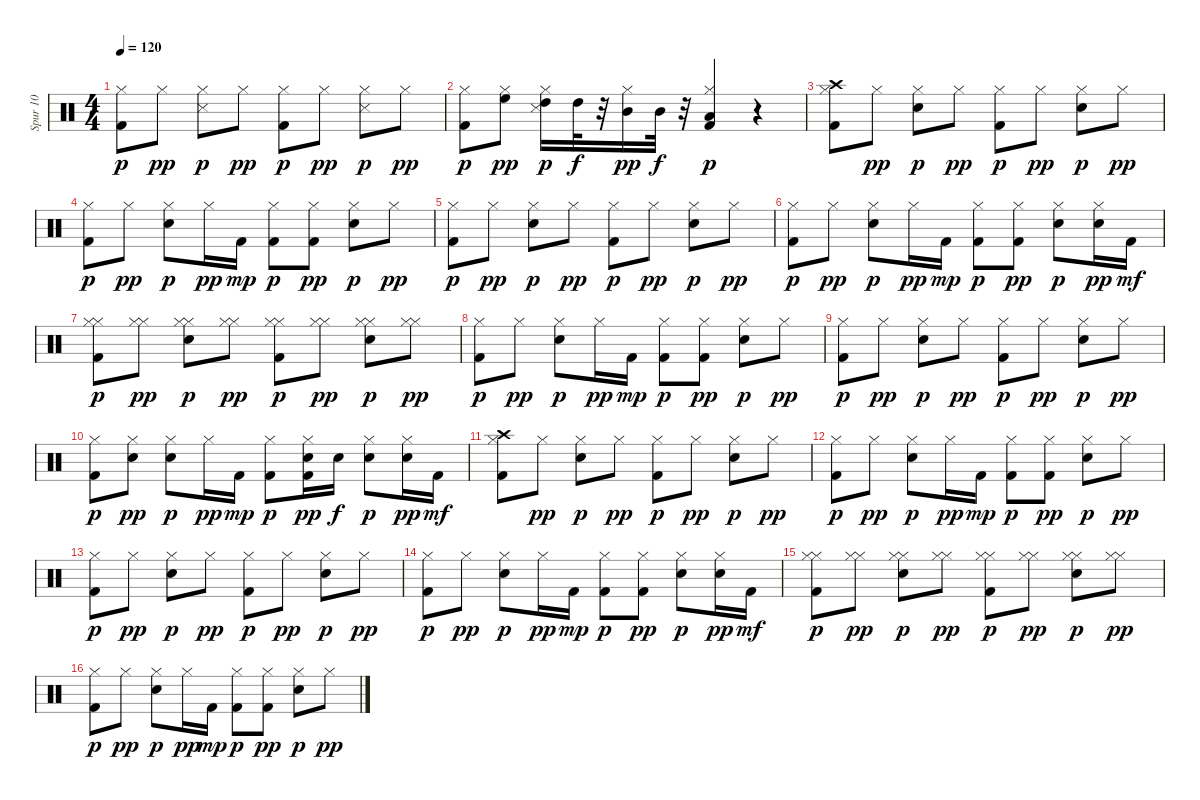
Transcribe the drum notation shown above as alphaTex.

\track ("Spur 10" "Spur 10") {instrument percussion}
\staff {score}
\articulation defaults
\ts (4 4)
\tempo 120
\clef neutral
\ks c
("Kick (hit) 2" "Hi-Hat (closed)").8{dy p} "Hi-Hat (closed)".8{dy pp} ("Snare (side stick) 3" "Hi-Hat (closed)").8{dy p} "Hi-Hat (closed)".8{dy pp} ("Kick (hit) 2" "Hi-Hat (closed)").8{dy p} "Hi-Hat (closed)".8{dy pp} ("Snare (side stick) 3" "Hi-Hat (closed)").8{dy p} "Hi-Hat (closed)".8{dy pp} |
("Kick (hit) 2" "Hi-Hat (closed)").8{dy p} ("Hi-Hat (closed)" "High Floor Tom (hit)").8{dy pp} ("Snare (side stick) 3" "Hi-Hat (closed)" "High Tom (hit)").16{dy p} "High Tom (hit)".32{dy f} r.32 ("Hi-Hat (closed)" "Mid Tom (hit)").16{dy pp} "Mid Tom (hit)".32{dy f} r.32 ("Kick (hit) 2" "Hi-Hat (closed)" "Low Tom (hit)").4{dy p} r.4 |
("Kick (hit) 2" "Hi-Hat (closed)" "Crash high (hit)").8 "Hi-Hat (closed)".8{dy pp} ("Snare (hit) 2" "Hi-Hat (closed)").8{dy p} "Hi-Hat (closed)".8{dy pp} ("Kick (hit) 2" "Hi-Hat (closed)").8{dy p} "Hi-Hat (closed)".8{dy pp} ("Snare (hit) 2" "Hi-Hat (closed)").8{dy p} "Hi-Hat (closed)".8{dy pp} |
("Kick (hit) 2" "Hi-Hat (closed)").8{dy p} "Hi-Hat (closed)".8{dy pp} ("Snare (hit) 2" "Hi-Hat (closed)").8{dy p} "Hi-Hat (closed)".16{dy pp} "Kick (hit) 2".16{dy mp} ("Kick (hit) 2" "Hi-Hat (closed)").8{dy p} ("Kick (hit) 2" "Hi-Hat (closed)").8{dy pp} ("Snare (hit) 2" "Hi-Hat (closed)").8{dy p} "Hi-Hat (closed)".8{dy pp} |
("Kick (hit) 2" "Hi-Hat (closed)").8{dy p} "Hi-Hat (closed)".8{dy pp} ("Snare (hit) 2" "Hi-Hat (closed)").8{dy p} "Hi-Hat (closed)".8{dy pp} ("Kick (hit) 2" "Hi-Hat (closed)").8{dy p} "Hi-Hat (closed)".8{dy pp} ("Snare (hit) 2" "Hi-Hat (closed)").8{dy p} "Hi-Hat (closed)".8{dy pp} |
("Kick (hit) 2" "Hi-Hat (closed)").8{dy p} "Hi-Hat (closed)".8{dy pp} ("Snare (hit) 2" "Hi-Hat (closed)").8{dy p} "Hi-Hat (closed)".16{dy pp} "Kick (hit) 2".16{dy mp} ("Kick (hit) 2" "Hi-Hat (closed)").8{dy p} ("Kick (hit) 2" "Hi-Hat (closed)").8{dy pp} ("Snare (hit) 2" "Hi-Hat (closed)").8{dy p} ("Snare (hit) 2" "Hi-Hat (closed)").16{dy pp} "Kick (hit) 2".16{dy mf} |
("Kick (hit) 2" "Hi-Hat (closed)" "Hi-Hat (closed)").8{dy p} ("Hi-Hat (closed)" "Hi-Hat (closed)").8{dy pp} ("Snare (hit) 2" "Hi-Hat (closed)" "Hi-Hat (closed)").8{dy p} ("Hi-Hat (closed)" "Hi-Hat (closed)").8{dy pp} ("Kick (hit) 2" "Hi-Hat (closed)" "Hi-Hat (closed)").8{dy p} ("Hi-Hat (closed)" "Hi-Hat (closed)").8{dy pp} ("Snare (hit) 2" "Hi-Hat (closed)" "Hi-Hat (closed)").8{dy p} ("Hi-Hat (closed)" "Hi-Hat (closed)").8{dy pp} |
("Kick (hit) 2" "Hi-Hat (closed)").8{dy p} "Hi-Hat (closed)".8{dy pp} ("Snare (hit) 2" "Hi-Hat (closed)").8{dy p} "Hi-Hat (closed)".16{dy pp} "Kick (hit) 2".16{dy mp} ("Kick (hit) 2" "Hi-Hat (closed)").8{dy p} ("Kick (hit) 2" "Hi-Hat (closed)").8{dy pp} ("Snare (hit) 2" "Hi-Hat (closed)").8{dy p} "Hi-Hat (closed)".8{dy pp} |
("Kick (hit) 2" "Hi-Hat (closed)").8{dy p} "Hi-Hat (closed)".8{dy pp} ("Snare (hit) 2" "Hi-Hat (closed)").8{dy p} "Hi-Hat (closed)".8{dy pp} ("Kick (hit) 2" "Hi-Hat (closed)").8{dy p} "Hi-Hat (closed)".8{dy pp} ("Snare (hit) 2" "Hi-Hat (closed)").8{dy p} "Hi-Hat (closed)".8{dy pp} |
("Kick (hit) 2" "Hi-Hat (closed)").8{dy p} ("Snare (hit) 2" "Hi-Hat (closed)").8{dy pp} ("Snare (hit) 2" "Hi-Hat (closed)").8{dy p} "Hi-Hat (closed)".16{dy pp} "Kick (hit) 2".16{dy mp} ("Kick (hit) 2" "Hi-Hat (closed)").8{dy p} ("Kick (hit) 2" "Snare (hit) 2" "Hi-Hat (closed)").16{dy pp} "Snare (hit) 2".16{dy f} ("Snare (hit) 2" "Hi-Hat (closed)").8{dy p} ("Snare (hit) 2" "Hi-Hat (closed)").16{dy pp} "Kick (hit) 2".16{dy mf} |
("Kick (hit) 2" "Hi-Hat (closed)" "Crash high (hit)").8 "Hi-Hat (closed)".8{dy pp} ("Snare (hit) 2" "Hi-Hat (closed)").8{dy p} "Hi-Hat (closed)".8{dy pp} ("Kick (hit) 2" "Hi-Hat (closed)").8{dy p} "Hi-Hat (closed)".8{dy pp} ("Snare (hit) 2" "Hi-Hat (closed)").8{dy p} "Hi-Hat (closed)".8{dy pp} |
("Kick (hit) 2" "Hi-Hat (closed)").8{dy p} "Hi-Hat (closed)".8{dy pp} ("Snare (hit) 2" "Hi-Hat (closed)").8{dy p} "Hi-Hat (closed)".16{dy pp} "Kick (hit) 2".16{dy mp} ("Kick (hit) 2" "Hi-Hat (closed)").8{dy p} ("Kick (hit) 2" "Hi-Hat (closed)").8{dy pp} ("Snare (hit) 2" "Hi-Hat (closed)").8{dy p} "Hi-Hat (closed)".8{dy pp} |
("Kick (hit) 2" "Hi-Hat (closed)").8{dy p} "Hi-Hat (closed)".8{dy pp} ("Snare (hit) 2" "Hi-Hat (closed)").8{dy p} "Hi-Hat (closed)".8{dy pp} ("Kick (hit) 2" "Hi-Hat (closed)").8{dy p} "Hi-Hat (closed)".8{dy pp} ("Snare (hit) 2" "Hi-Hat (closed)").8{dy p} "Hi-Hat (closed)".8{dy pp} |
("Kick (hit) 2" "Hi-Hat (closed)").8{dy p} "Hi-Hat (closed)".8{dy pp} ("Snare (hit) 2" "Hi-Hat (closed)").8{dy p} "Hi-Hat (closed)".16{dy pp} "Kick (hit) 2".16{dy mp} ("Kick (hit) 2" "Hi-Hat (closed)").8{dy p} ("Kick (hit) 2" "Hi-Hat (closed)").8{dy pp} ("Snare (hit) 2" "Hi-Hat (closed)").8{dy p} ("Snare (hit) 2" "Hi-Hat (closed)").16{dy pp} "Kick (hit) 2".16{dy mf} |
("Kick (hit) 2" "Hi-Hat (closed)" "Hi-Hat (closed)").8{dy p} ("Hi-Hat (closed)" "Hi-Hat (closed)").8{dy pp} ("Snare (hit) 2" "Hi-Hat (closed)" "Hi-Hat (closed)").8{dy p} ("Hi-Hat (closed)" "Hi-Hat (closed)").8{dy pp} ("Kick (hit) 2" "Hi-Hat (closed)" "Hi-Hat (closed)").8{dy p} ("Hi-Hat (closed)" "Hi-Hat (closed)").8{dy pp} ("Snare (hit) 2" "Hi-Hat (closed)" "Hi-Hat (closed)").8{dy p} ("Hi-Hat (closed)" "Hi-Hat (closed)").8{dy pp} |
("Kick (hit) 2" "Hi-Hat (closed)").8{dy p} "Hi-Hat (closed)".8{dy pp} ("Snare (hit) 2" "Hi-Hat (closed)").8{dy p} "Hi-Hat (closed)".16{dy pp} "Kick (hit) 2".16{dy mp} ("Kick (hit) 2" "Hi-Hat (closed)").8{dy p} ("Kick (hit) 2" "Hi-Hat (closed)").8{dy pp} ("Snare (hit) 2" "Hi-Hat (closed)").8{dy p} "Hi-Hat (closed)".8{dy pp}
